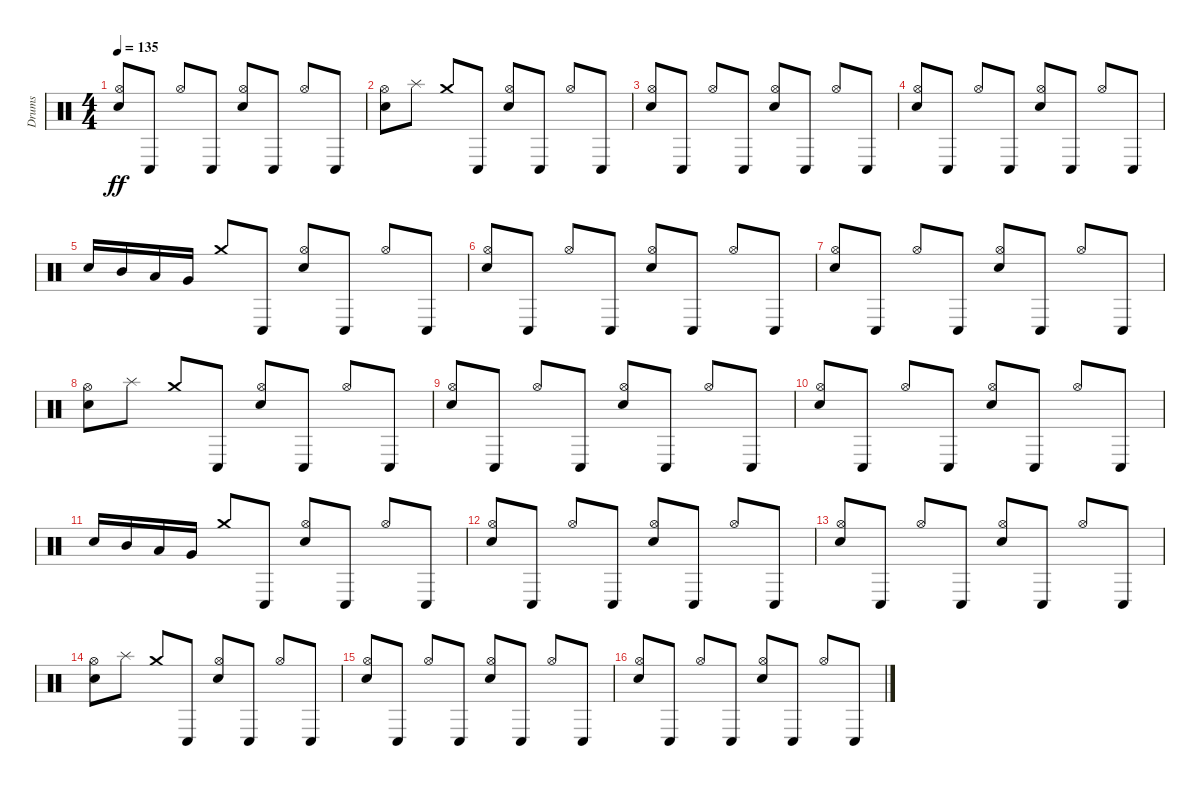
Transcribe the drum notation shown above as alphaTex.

\track ("Drums" "Drums") {instrument percussion}
\staff {score}
\articulation defaults
\ts (4 4)
\tempo 135
\clef neutral
\ks c
("Electric Snare (hit)" "Hi-Hat (open)").8{dy ff} "Conga low (hit)".8 "Hi-Hat (open)".8 "Conga low (hit)".8 ("Electric Snare (hit)" "Hi-Hat (open)").8 "Conga low (hit)".8 "Hi-Hat (open)".8 "Conga low (hit)".8 |
("Electric Snare (hit)" "Hi-Hat (open)").8 "Splash (hit)".8 "Crash medium (hit)".8 "Conga low (hit)".8 ("Electric Snare (hit)" "Hi-Hat (open)").8 "Conga low (hit)".8 "Hi-Hat (open)".8 "Conga low (hit)".8 |
("Electric Snare (hit)" "Hi-Hat (open)").8 "Conga low (hit)".8 "Hi-Hat (open)".8 "Conga low (hit)".8 ("Electric Snare (hit)" "Hi-Hat (open)").8 "Conga low (hit)".8 "Hi-Hat (open)".8 "Conga low (hit)".8 |
("Electric Snare (hit)" "Hi-Hat (open)").8 "Conga low (hit)".8 "Hi-Hat (open)".8 "Conga low (hit)".8 ("Electric Snare (hit)" "Hi-Hat (open)").8 "Conga low (hit)".8 "Hi-Hat (open)".8 "Conga low (hit)".8 |
"Electric Snare (hit)".16 "Mid Tom (hit)".16 "Low Tom (hit)".16 "Very Low Tom (hit)".16 "Crash medium (hit)".8 "Conga low (hit)".8 ("Electric Snare (hit)" "Hi-Hat (open)").8 "Conga low (hit)".8 "Hi-Hat (open)".8 "Conga low (hit)".8 |
("Electric Snare (hit)" "Hi-Hat (open)").8 "Conga low (hit)".8 "Hi-Hat (open)".8 "Conga low (hit)".8 ("Electric Snare (hit)" "Hi-Hat (open)").8 "Conga low (hit)".8 "Hi-Hat (open)".8 "Conga low (hit)".8 |
("Electric Snare (hit)" "Hi-Hat (open)").8 "Conga low (hit)".8 "Hi-Hat (open)".8 "Conga low (hit)".8 ("Electric Snare (hit)" "Hi-Hat (open)").8 "Conga low (hit)".8 "Hi-Hat (open)".8 "Conga low (hit)".8 |
("Electric Snare (hit)" "Hi-Hat (open)").8 "Splash (hit)".8 "Crash medium (hit)".8 "Conga low (hit)".8 ("Electric Snare (hit)" "Hi-Hat (open)").8 "Conga low (hit)".8 "Hi-Hat (open)".8 "Conga low (hit)".8 |
("Electric Snare (hit)" "Hi-Hat (open)").8 "Conga low (hit)".8 "Hi-Hat (open)".8 "Conga low (hit)".8 ("Electric Snare (hit)" "Hi-Hat (open)").8 "Conga low (hit)".8 "Hi-Hat (open)".8 "Conga low (hit)".8 |
("Electric Snare (hit)" "Hi-Hat (open)").8 "Conga low (hit)".8 "Hi-Hat (open)".8 "Conga low (hit)".8 ("Electric Snare (hit)" "Hi-Hat (open)").8 "Conga low (hit)".8 "Hi-Hat (open)".8 "Conga low (hit)".8 |
"Electric Snare (hit)".16 "Mid Tom (hit)".16 "Low Tom (hit)".16 "Very Low Tom (hit)".16 "Crash medium (hit)".8 "Conga low (hit)".8 ("Electric Snare (hit)" "Hi-Hat (open)").8 "Conga low (hit)".8 "Hi-Hat (open)".8 "Conga low (hit)".8 |
("Electric Snare (hit)" "Hi-Hat (open)").8 "Conga low (hit)".8 "Hi-Hat (open)".8 "Conga low (hit)".8 ("Electric Snare (hit)" "Hi-Hat (open)").8 "Conga low (hit)".8 "Hi-Hat (open)".8 "Conga low (hit)".8 |
("Electric Snare (hit)" "Hi-Hat (open)").8 "Conga low (hit)".8 "Hi-Hat (open)".8 "Conga low (hit)".8 ("Electric Snare (hit)" "Hi-Hat (open)").8 "Conga low (hit)".8 "Hi-Hat (open)".8 "Conga low (hit)".8 |
("Electric Snare (hit)" "Hi-Hat (open)").8 "Splash (hit)".8 "Crash medium (hit)".8 "Conga low (hit)".8 ("Electric Snare (hit)" "Hi-Hat (open)").8 "Conga low (hit)".8 "Hi-Hat (open)".8 "Conga low (hit)".8 |
("Electric Snare (hit)" "Hi-Hat (open)").8 "Conga low (hit)".8 "Hi-Hat (open)".8 "Conga low (hit)".8 ("Electric Snare (hit)" "Hi-Hat (open)").8 "Conga low (hit)".8 "Hi-Hat (open)".8 "Conga low (hit)".8 |
("Electric Snare (hit)" "Hi-Hat (open)").8 "Conga low (hit)".8 "Hi-Hat (open)".8 "Conga low (hit)".8 ("Electric Snare (hit)" "Hi-Hat (open)").8 "Conga low (hit)".8 "Hi-Hat (open)".8 "Conga low (hit)".8
